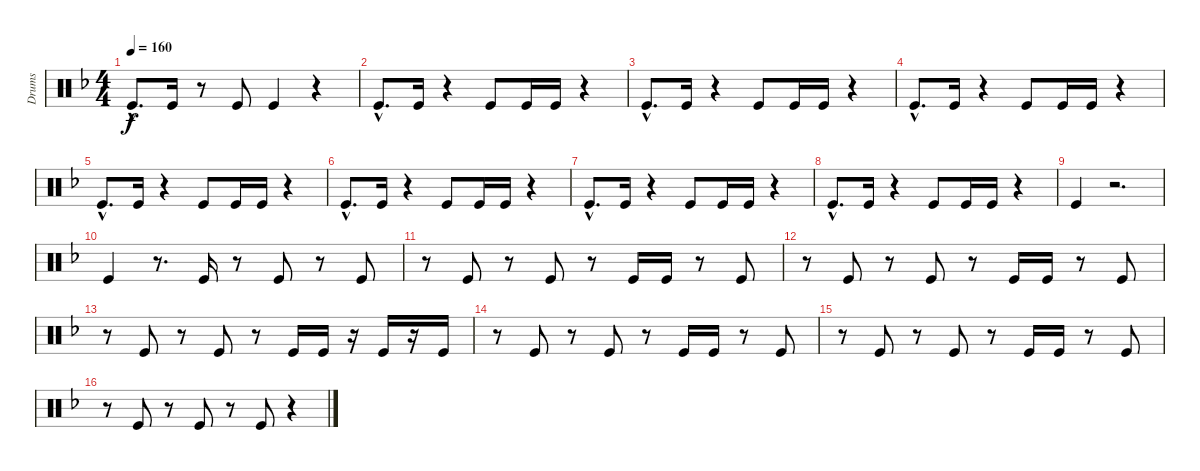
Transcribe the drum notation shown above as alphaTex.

\track ("Drums" "Drums") {instrument percussion}
\staff {score}
\articulation defaults
\ts (4 4)
\tempo 160
\clef neutral
\ks f "Kick (hit)"{hac}.8{d dy f} "Kick (hit)".16
r.8 "Kick (hit)".8 "Kick (hit)".4 r.4 |
"Kick (hit)"{hac}.8{d} "Kick (hit)".16 r.4 "Kick (hit)".8 "Kick (hit)".16 "Kick (hit)".16 r.4 |
"Kick (hit)"{hac}.8{d} "Kick (hit)".16 r.4 "Kick (hit)".8 "Kick (hit)".16 "Kick (hit)".16 r.4 |
"Kick (hit)"{hac}.8{d} "Kick (hit)".16 r.4 "Kick (hit)".8 "Kick (hit)".16 "Kick (hit)".16 r.4 |
"Kick (hit)"{hac}.8{d} "Kick (hit)".16 r.4 "Kick (hit)".8 "Kick (hit)".16 "Kick (hit)".16 r.4 |
"Kick (hit)"{hac}.8{d} "Kick (hit)".16 r.4 "Kick (hit)".8 "Kick (hit)".16 "Kick (hit)".16 r.4 |
"Kick (hit)"{hac}.8{d} "Kick (hit)".16 r.4 "Kick (hit)".8 "Kick (hit)".16 "Kick (hit)".16 r.4 |
"Kick (hit)"{hac}.8{d} "Kick (hit)".16 r.4 "Kick (hit)".8 "Kick (hit)".16 "Kick (hit)".16 r.4 |
"Kick (hit)".4 r.2{d} |
"Kick (hit)".4 r.8{d} "Kick (hit)".16 r.8 "Kick (hit)".8 r.8 "Kick (hit)".8 |
r.8 "Kick (hit)".8 r.8 "Kick (hit)".8 r.8 "Kick (hit)".16 "Kick (hit)".16 r.8 "Kick (hit)".8 |
r.8 "Kick (hit)".8 r.8 "Kick (hit)".8 r.8 "Kick (hit)".16 "Kick (hit)".16 r.8 "Kick (hit)".8 |
r.8 "Kick (hit)".8 r.8 "Kick (hit)".8 r.8 "Kick (hit)".16 "Kick (hit)".16 r.16 "Kick (hit)".16 r.16 "Kick (hit)".16 |
r.8 "Kick (hit)".8 r.8 "Kick (hit)".8 r.8 "Kick (hit)".16 "Kick (hit)".16 r.8 "Kick (hit)".8 |
r.8 "Kick (hit)".8 r.8 "Kick (hit)".8 r.8 "Kick (hit)".16 "Kick (hit)".16 r.8 "Kick (hit)".8 |
r.8 "Kick (hit)".8 r.8 "Kick (hit)".8 r.8 "Kick (hit)".8 r.4
